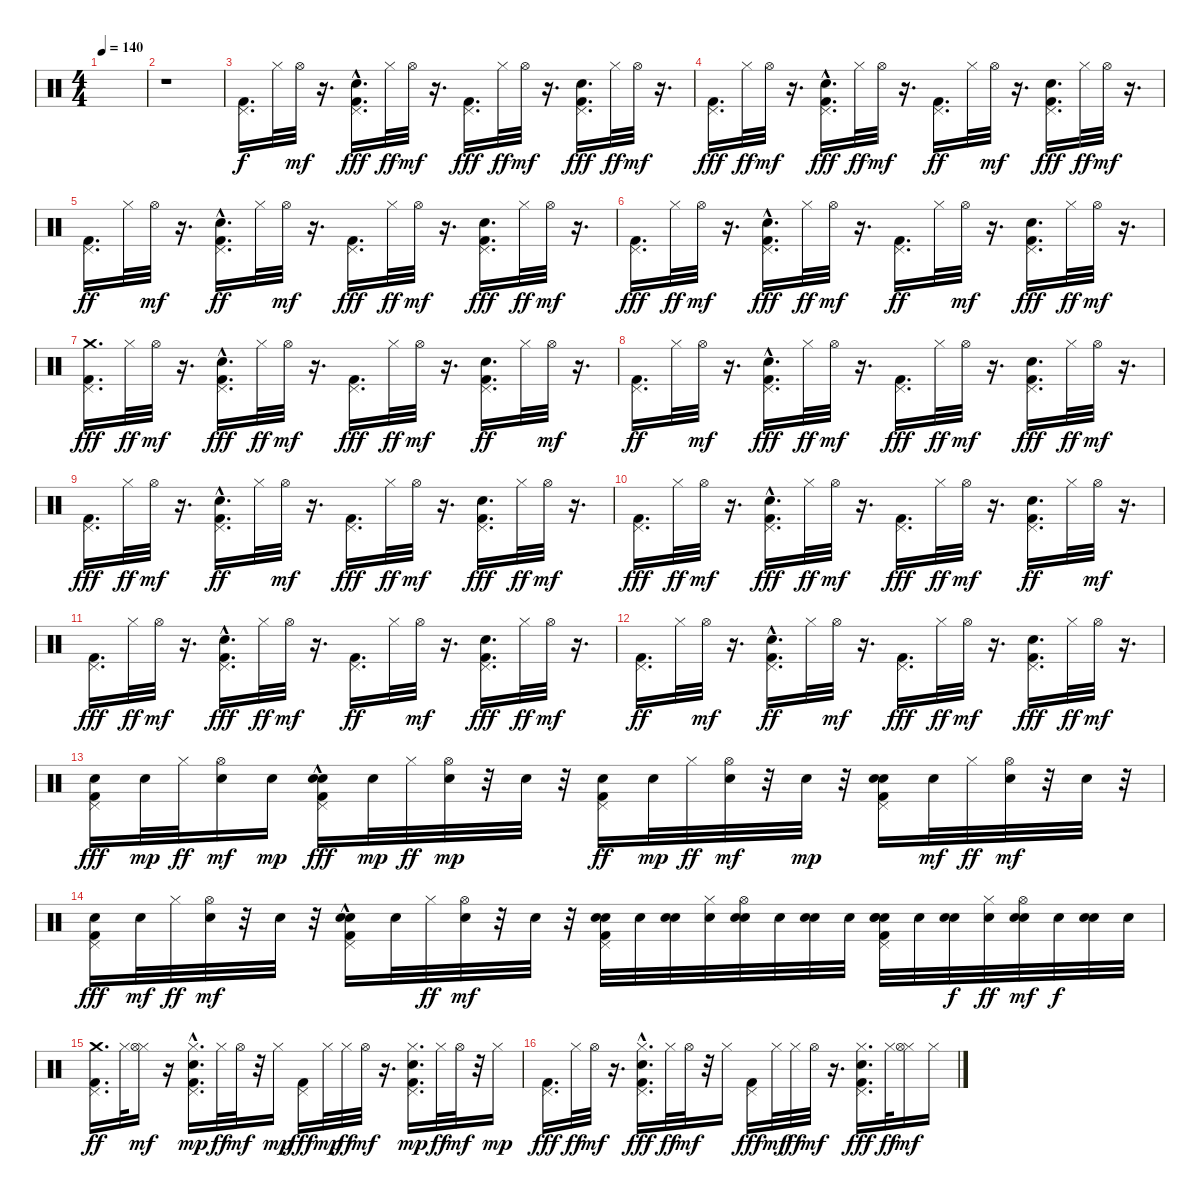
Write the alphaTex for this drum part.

\track "" {instrument percussion}
\staff {score}
\articulation defaults
\ts (4 4)
\tempo 140
\clef neutral
\ks c
|
r.1 |
("Kick (hit) 2" "Pedal Hi-Hat (hit)").16{d} "Hi-Hat (closed)".32 "Hi-Hat (open)".32{dy mf} r.16{d} ("Pedal Hi-Hat (hit)" "Kick (hit) 2" "Hand Clap (hit)"{hac}).16{d dy fff} "Hi-Hat (closed)".32{dy ff} "Hi-Hat (open)".32{dy mf} r.16{d} ("Pedal Hi-Hat (hit)" "Kick (hit) 2").16{d dy fff} "Hi-Hat (closed)".32{dy ff} "Hi-Hat (open)".32{dy mf} r.16{d} ("Pedal Hi-Hat (hit)" "Kick (hit) 2" "Hand Clap (hit)").16{d dy fff} "Hi-Hat (closed)".32{dy ff} "Hi-Hat (open)".32{dy mf} r.16{d} |
("Pedal Hi-Hat (hit)" "Kick (hit) 2").16{d dy fff} "Hi-Hat (closed)".32{dy ff} "Hi-Hat (open)".32{dy mf} r.16{d} ("Hand Clap (hit)"{hac} "Pedal Hi-Hat (hit)" "Kick (hit) 2").16{d dy fff} "Hi-Hat (closed)".32{dy ff} "Hi-Hat (open)".32{dy mf} r.16{d} ("Kick (hit) 2" "Pedal Hi-Hat (hit)").16{d dy ff} "Hi-Hat (closed)".32 "Hi-Hat (open)".32{dy mf} r.16{d} ("Pedal Hi-Hat (hit)" "Kick (hit) 2" "Hand Clap (hit)").16{d dy fff} "Hi-Hat (closed)".32{dy ff} "Hi-Hat (open)".32{dy mf} r.16{d} |
("Kick (hit) 2" "Pedal Hi-Hat (hit)").16{d dy ff} "Hi-Hat (closed)".32 "Hi-Hat (open)".32{dy mf} r.16{d} ("Kick (hit) 2" "Pedal Hi-Hat (hit)" "Hand Clap (hit)"{hac}).16{d dy ff} "Hi-Hat (closed)".32 "Hi-Hat (open)".32{dy mf} r.16{d} ("Pedal Hi-Hat (hit)" "Kick (hit) 2").16{d dy fff} "Hi-Hat (closed)".32{dy ff} "Hi-Hat (open)".32{dy mf} r.16{d} ("Pedal Hi-Hat (hit)" "Kick (hit) 2" "Hand Clap (hit)").16{d dy fff} "Hi-Hat (closed)".32{dy ff} "Hi-Hat (open)".32{dy mf} r.16{d} |
("Pedal Hi-Hat (hit)" "Kick (hit) 2").16{d dy fff} "Hi-Hat (closed)".32{dy ff} "Hi-Hat (open)".32{dy mf} r.16{d} ("Pedal Hi-Hat (hit)" "Kick (hit) 2" "Hand Clap (hit)"{hac}).16{d dy fff} "Hi-Hat (closed)".32{dy ff} "Hi-Hat (open)".32{dy mf} r.16{d} ("Kick (hit) 2" "Pedal Hi-Hat (hit)").16{d dy ff} "Hi-Hat (closed)".32 "Hi-Hat (open)".32{dy mf} r.16{d} ("Pedal Hi-Hat (hit)" "Kick (hit) 2" "Hand Clap (hit)").16{d dy fff} "Hi-Hat (closed)".32{dy ff} "Hi-Hat (open)".32{dy mf} r.16{d} |
("Pedal Hi-Hat (hit)" "Kick (hit) 2" "Crash medium (hit)").16{d dy fff} "Hi-Hat (closed)".32{dy ff} "Hi-Hat (open)".32{dy mf} r.16{d} ("Hand Clap (hit)"{hac} "Pedal Hi-Hat (hit)" "Kick (hit) 2").16{d dy fff} "Hi-Hat (closed)".32{dy ff} "Hi-Hat (open)".32{dy mf} r.16{d} ("Pedal Hi-Hat (hit)" "Kick (hit) 2").16{d dy fff} "Hi-Hat (closed)".32{dy ff} "Hi-Hat (open)".32{dy mf} r.16{d} ("Kick (hit) 2" "Pedal Hi-Hat (hit)" "Hand Clap (hit)").16{d dy ff} "Hi-Hat (closed)".32 "Hi-Hat (open)".32{dy mf} r.16{d} |
("Kick (hit) 2" "Pedal Hi-Hat (hit)").16{d dy ff} "Hi-Hat (closed)".32 "Hi-Hat (open)".32{dy mf} r.16{d} ("Hand Clap (hit)"{hac} "Pedal Hi-Hat (hit)" "Kick (hit) 2").16{d dy fff} "Hi-Hat (closed)".32{dy ff} "Hi-Hat (open)".32{dy mf} r.16{d} ("Pedal Hi-Hat (hit)" "Kick (hit) 2").16{d dy fff} "Hi-Hat (closed)".32{dy ff} "Hi-Hat (open)".32{dy mf} r.16{d} ("Pedal Hi-Hat (hit)" "Kick (hit) 2" "Hand Clap (hit)").16{d dy fff} "Hi-Hat (closed)".32{dy ff} "Hi-Hat (open)".32{dy mf} r.16{d} |
("Pedal Hi-Hat (hit)" "Kick (hit) 2").16{d dy fff} "Hi-Hat (closed)".32{dy ff} "Hi-Hat (open)".32{dy mf} r.16{d} ("Hand Clap (hit)"{hac} "Kick (hit) 2" "Pedal Hi-Hat (hit)").16{d dy ff} "Hi-Hat (closed)".32 "Hi-Hat (open)".32{dy mf} r.16{d} ("Pedal Hi-Hat (hit)" "Kick (hit) 2").16{d dy fff} "Hi-Hat (closed)".32{dy ff} "Hi-Hat (open)".32{dy mf} r.16{d} ("Pedal Hi-Hat (hit)" "Hand Clap (hit)" "Kick (hit) 2").16{d dy fff} "Hi-Hat (closed)".32{dy ff} "Hi-Hat (open)".32{dy mf} r.16{d} |
("Pedal Hi-Hat (hit)" "Kick (hit) 2").16{d dy fff} "Hi-Hat (closed)".32{dy ff} "Hi-Hat (open)".32{dy mf} r.16{d} ("Pedal Hi-Hat (hit)" "Kick (hit) 2" "Hand Clap (hit)"{hac}).16{d dy fff} "Hi-Hat (closed)".32{dy ff} "Hi-Hat (open)".32{dy mf} r.16{d} ("Pedal Hi-Hat (hit)" "Kick (hit) 2").16{d dy fff} "Hi-Hat (closed)".32{dy ff} "Hi-Hat (open)".32{dy mf} r.16{d} ("Kick (hit) 2" "Hand Clap (hit)" "Pedal Hi-Hat (hit)").16{d dy ff} "Hi-Hat (closed)".32 "Hi-Hat (open)".32{dy mf} r.16{d} |
("Pedal Hi-Hat (hit)" "Kick (hit) 2").16{d dy fff} "Hi-Hat (closed)".32{dy ff} "Hi-Hat (open)".32{dy mf} r.16{d} ("Pedal Hi-Hat (hit)" "Hand Clap (hit)"{hac} "Kick (hit) 2").16{d dy fff} "Hi-Hat (closed)".32{dy ff} "Hi-Hat (open)".32{dy mf} r.16{d} ("Kick (hit) 2" "Pedal Hi-Hat (hit)").16{d dy ff} "Hi-Hat (closed)".32 "Hi-Hat (open)".32{dy mf} r.16{d} ("Pedal Hi-Hat (hit)" "Kick (hit) 2" "Hand Clap (hit)").16{d dy fff} "Hi-Hat (closed)".32{dy ff} "Hi-Hat (open)".32{dy mf} r.16{d} |
("Kick (hit) 2" "Pedal Hi-Hat (hit)").16{d dy ff} "Hi-Hat (closed)".32 "Hi-Hat (open)".32{dy mf} r.16{d} ("Kick (hit) 2" "Pedal Hi-Hat (hit)" "Hand Clap (hit)"{hac}).16{d dy ff} "Hi-Hat (closed)".32 "Hi-Hat (open)".32{dy mf} r.16{d} ("Pedal Hi-Hat (hit)" "Kick (hit) 2").16{d dy fff} "Hi-Hat (closed)".32{dy ff} "Hi-Hat (open)".32{dy mf} r.16{d} ("Pedal Hi-Hat (hit)" "Hand Clap (hit)" "Kick (hit) 2").16{d dy fff} "Hi-Hat (closed)".32{dy ff} "Hi-Hat (open)".32{dy mf} r.16{d} |
("Pedal Hi-Hat (hit)" "Electric Snare (hit)" "Kick (hit) 2").16{dy fff} "Electric Snare (hit)".32{dy mp} "Hi-Hat (closed)".32{dy ff} ("Electric Snare (hit)" "Hi-Hat (open)").16{dy mf} "Electric Snare (hit)".16{dy mp} ("Pedal Hi-Hat (hit)" "Electric Snare (hit)" "Hand Clap (hit)"{hac} "Kick (hit) 2").16{dy fff} "Electric Snare (hit)".32{dy mp} "Hi-Hat (closed)".32{dy ff} ("Hi-Hat (open)" "Electric Snare (hit)").32{dy mp} r.32 "Electric Snare (hit)".32 r.32 ("Kick (hit) 2" "Electric Snare (hit)" "Pedal Hi-Hat (hit)").16{dy ff} "Electric Snare (hit)".32{dy mp} "Hi-Hat (closed)".32{dy ff} ("Electric Snare (hit)" "Hi-Hat (open)").32{dy mf} r.32 "Electric Snare (hit)".32{dy mp} r.32 ("Pedal Hi-Hat (hit)" "Hand Clap (hit)" "Kick (hit) 2" "Electric Snare (hit)").16 "Electric Snare (hit)".32{dy mf} "Hi-Hat (closed)".32{dy ff} ("Electric Snare (hit)" "Hi-Hat (open)").32{dy mf} r.32 "Electric Snare (hit)".32 r.32 |
("Pedal Hi-Hat (hit)" "Electric Snare (hit)" "Kick (hit) 2").16{dy fff} "Electric Snare (hit)".32{dy mf} "Hi-Hat (closed)".32{dy ff} ("Electric Snare (hit)" "Hi-Hat (open)").32{dy mf} r.32 "Electric Snare (hit)".32 r.32 ("Kick (hit) 2" "Hand Clap (hit)"{hac} "Pedal Hi-Hat (hit)" "Electric Snare (hit)").16 "Electric Snare (hit)".32 "Hi-Hat (closed)".32{dy ff} ("Hi-Hat (open)" "Electric Snare (hit)").32{dy mf} r.32 "Electric Snare (hit)".32 r.32 ("Kick (hit) 2" "Pedal Hi-Hat (hit)" "Electric Snare (hit)" "Snare (hit) 2").32 "Snare (hit) 2".32 ("Snare (hit) 2" "Electric Snare (hit)").32 ("Hi-Hat (closed)" "Snare (hit) 2").32 ("Snare (hit) 2" "Hi-Hat (open)" "Electric Snare (hit)").32 "Snare (hit) 2".32 ("Snare (hit) 2" "Electric Snare (hit)").32 "Snare (hit) 2".32 ("Kick (hit) 2" "Pedal Hi-Hat (hit)" "Hand Clap (hit)" "Snare (hit) 2" "Electric Snare (hit)").32 "Snare (hit) 2".32 ("Electric Snare (hit)" "Snare (hit) 2").32{dy f} ("Hi-Hat (closed)" "Snare (hit) 2").32{dy ff} ("Snare (hit) 2" "Hi-Hat (open)" "Electric Snare (hit)").32{dy mf} "Snare (hit) 2".32{dy f} ("Snare (hit) 2" "Electric Snare (hit)").32 "Snare (hit) 2".32 |
("Crash medium (hit)" "Kick (hit) 2" "Pedal Hi-Hat (hit)").16{d dy ff} "Hi-Hat (closed)".32 ("Hi-Hat (closed)" "Hi-Hat (open)").16{dy mf} r.16 ("Pedal Hi-Hat (hit)" "Kick (hit) 2" "Hi-Hat (closed)" "Hand Clap (hit)"{hac}).16{d dy mp} "Hi-Hat (closed)".32{dy ff} "Hi-Hat (open)".32{dy mf} r.32 "Hi-Hat (closed)".16{dy mp} ("Pedal Hi-Hat (hit)" "Kick (hit) 2").16{dy fff} "Hi-Hat (closed)".32{dy mp} "Hi-Hat (closed)".32{dy ff} "Hi-Hat (open)".32{dy mf} r.16{d} ("Kick (hit) 2" "Pedal Hi-Hat (hit)" "Hand Clap (hit)" "Hi-Hat (closed)").16{d dy mp} "Hi-Hat (closed)".32{dy ff} "Hi-Hat (open)".32{dy mf} r.32 "Hi-Hat (closed)".16{dy mp} |
("Pedal Hi-Hat (hit)" "Kick (hit) 2").16{d dy fff} "Hi-Hat (closed)".32{dy ff} "Hi-Hat (open)".32{dy mf} r.16{d} ("Hi-Hat (closed)" "Hand Clap (hit)"{hac} "Pedal Hi-Hat (hit)" "Kick (hit) 2").16{d dy fff} "Hi-Hat (closed)".32{dy ff} "Hi-Hat (open)".32{dy mf} r.32 "Hi-Hat (closed)".16 ("Pedal Hi-Hat (hit)" "Kick (hit) 2").16{dy fff} "Hi-Hat (closed)".32{dy mf} "Hi-Hat (closed)".32{dy ff} "Hi-Hat (open)".32{dy mf} r.16{d} ("Hi-Hat (closed)" "Hand Clap (hit)" "Pedal Hi-Hat (hit)" "Kick (hit) 2").16{d dy fff} "Hi-Hat (closed)".32{dy ff} ("Hi-Hat (closed)" "Hi-Hat (open)").16{dy mf} "Hi-Hat (closed)".16
